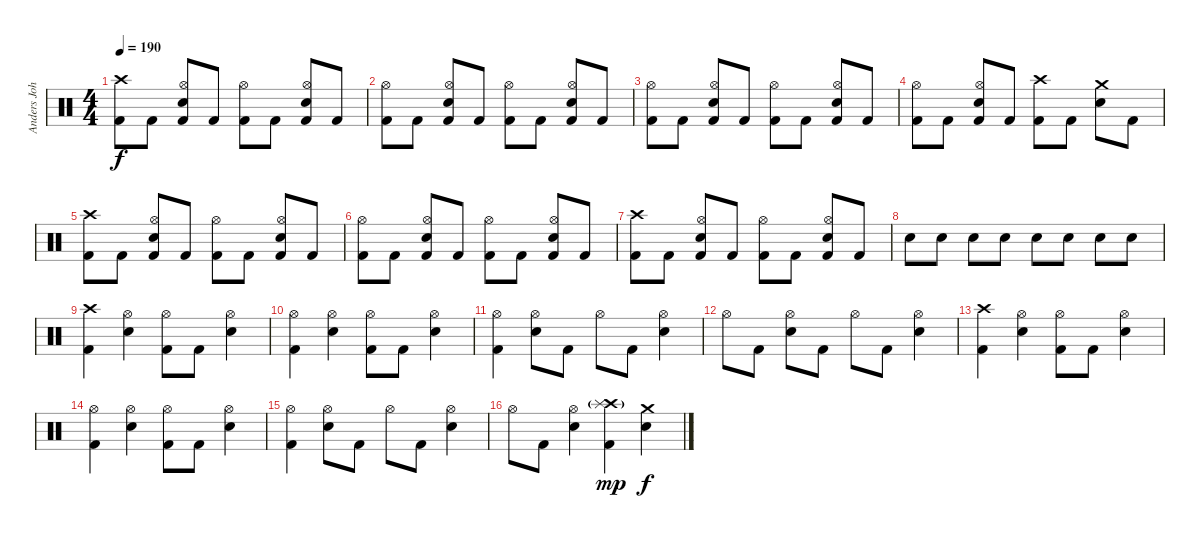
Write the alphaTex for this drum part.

\track ("Anders Johansson Drums" "Anders Joh") {instrument percussion}
\staff {score}
\articulation defaults
\ts (4 4)
\tempo 190
\clef neutral
\ks c
("Crash high (hit)" "Kick (hit) 2").8{dy f} "Kick (hit) 2".8 ("Hi-Hat (open)" "Snare (hit) 2" "Kick (hit) 2").8 "Kick (hit) 2".8 ("Hi-Hat (open)" "Kick (hit) 2").8 "Kick (hit) 2".8 ("Hi-Hat (open)" "Snare (hit) 2" "Kick (hit) 2").8 "Kick (hit) 2".8 |
("Hi-Hat (open)" "Kick (hit) 2").8 "Kick (hit) 2".8 ("Hi-Hat (open)" "Snare (hit) 2" "Kick (hit) 2").8 "Kick (hit) 2".8 ("Hi-Hat (open)" "Kick (hit) 2").8 "Kick (hit) 2".8 ("Hi-Hat (open)" "Snare (hit) 2" "Kick (hit) 2").8 "Kick (hit) 2".8 |
("Hi-Hat (open)" "Kick (hit) 2").8 "Kick (hit) 2".8 ("Hi-Hat (open)" "Snare (hit) 2" "Kick (hit) 2").8 "Kick (hit) 2".8 ("Hi-Hat (open)" "Kick (hit) 2").8 "Kick (hit) 2".8 ("Hi-Hat (open)" "Snare (hit) 2" "Kick (hit) 2").8 "Kick (hit) 2".8 |
("Hi-Hat (open)" "Kick (hit) 2").8 "Kick (hit) 2".8 ("Hi-Hat (open)" "Snare (hit) 2" "Kick (hit) 2").8 "Kick (hit) 2".8 ("Crash high (hit)" "Kick (hit) 2").8 "Kick (hit) 2".8 ("Crash medium (hit)" "Snare (hit) 2").8 "Kick (hit) 2".8 |
("Crash high (hit)" "Kick (hit) 2").8 "Kick (hit) 2".8 ("Hi-Hat (open)" "Snare (hit) 2" "Kick (hit) 2").8 "Kick (hit) 2".8 ("Hi-Hat (open)" "Kick (hit) 2").8 "Kick (hit) 2".8 ("Hi-Hat (open)" "Snare (hit) 2" "Kick (hit) 2").8 "Kick (hit) 2".8 |
("Hi-Hat (open)" "Kick (hit) 2").8 "Kick (hit) 2".8 ("Hi-Hat (open)" "Snare (hit) 2" "Kick (hit) 2").8 "Kick (hit) 2".8 ("Hi-Hat (open)" "Kick (hit) 2").8 "Kick (hit) 2".8 ("Hi-Hat (open)" "Snare (hit) 2" "Kick (hit) 2").8 "Kick (hit) 2".8 |
("Crash high (hit)" "Kick (hit) 2").8 "Kick (hit) 2".8 ("Hi-Hat (open)" "Snare (hit) 2" "Kick (hit) 2").8 "Kick (hit) 2".8 ("Hi-Hat (open)" "Kick (hit) 2").8 "Kick (hit) 2".8 ("Hi-Hat (open)" "Snare (hit) 2" "Kick (hit) 2").8 "Kick (hit) 2".8 |
"Snare (hit) 2".8 "Snare (hit) 2".8 "Snare (hit) 2".8 "Snare (hit) 2".8 "Snare (hit) 2".8 "Snare (hit) 2".8 "Snare (hit) 2".8 "Snare (hit) 2".8 |
("Crash high (hit)" "Kick (hit) 2").4 ("Hi-Hat (open)" "Snare (hit) 2").4 ("Hi-Hat (open)" "Kick (hit) 2").8 "Kick (hit) 2".8 ("Hi-Hat (open)" "Snare (hit) 2").4 |
("Hi-Hat (open)" "Kick (hit) 2").4 ("Hi-Hat (open)" "Snare (hit) 2").4 ("Hi-Hat (open)" "Kick (hit) 2").8 "Kick (hit) 2".8 ("Hi-Hat (open)" "Snare (hit) 2").4 |
("Hi-Hat (open)" "Kick (hit) 2").4 ("Hi-Hat (open)" "Snare (hit) 2").8 "Kick (hit) 2".8 "Hi-Hat (open)".8 "Kick (hit) 2".8 ("Hi-Hat (open)" "Snare (hit) 2").4 |
"Hi-Hat (open)".8 "Kick (hit) 2".8 ("Hi-Hat (open)" "Snare (hit) 2").8 "Kick (hit) 2".8 "Hi-Hat (open)".8 "Kick (hit) 2".8 ("Hi-Hat (open)" "Snare (hit) 2").4 |
("Crash high (hit)" "Kick (hit) 2").4 ("Hi-Hat (open)" "Snare (hit) 2").4 ("Hi-Hat (open)" "Kick (hit) 2").8 "Kick (hit) 2".8 ("Hi-Hat (open)" "Snare (hit) 2").4 |
("Hi-Hat (open)" "Kick (hit) 2").4 ("Hi-Hat (open)" "Snare (hit) 2").4 ("Hi-Hat (open)" "Kick (hit) 2").8 "Kick (hit) 2".8 ("Hi-Hat (open)" "Snare (hit) 2").4 |
("Hi-Hat (open)" "Kick (hit) 2").4 ("Hi-Hat (open)" "Snare (hit) 2").8 "Kick (hit) 2".8 "Hi-Hat (open)".8 "Kick (hit) 2".8 ("Hi-Hat (open)" "Snare (hit) 2").4 |
"Hi-Hat (open)".8 "Kick (hit) 2".8 ("Hi-Hat (open)" "Snare (hit) 2").4 ("Crash high (hit)"{g} "Splash (hit)" "Kick (hit) 2").4{dy mp} ("Crash medium (hit)" "Snare (hit) 2").4{dy f}
